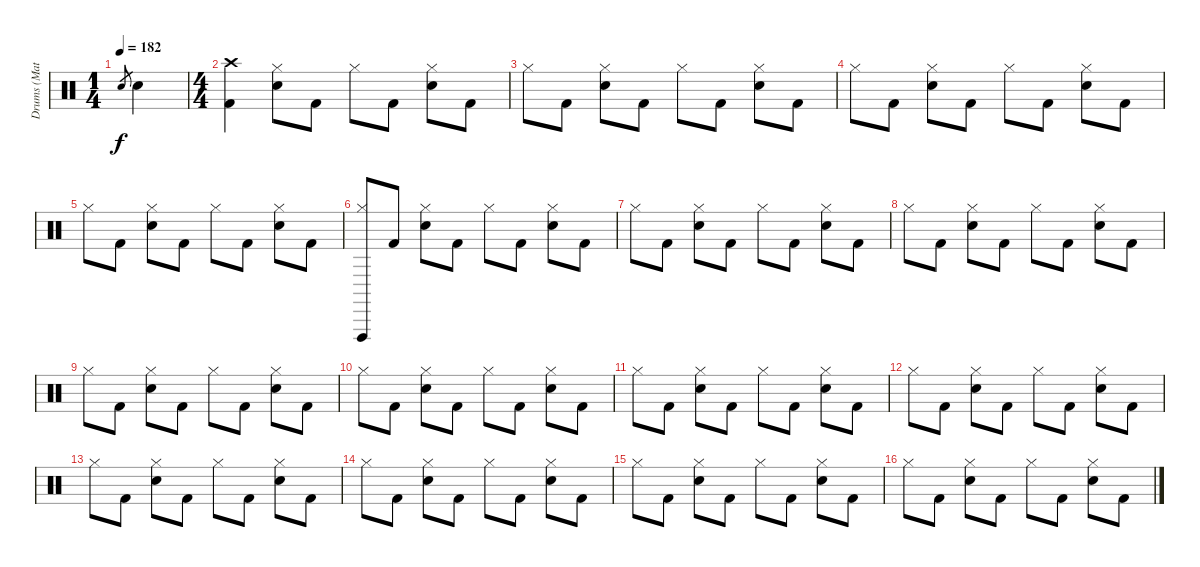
\track ("Drums (Matt)" "Drums (Mat") {instrument percussion}
\staff {score}
\articulation defaults
\ts (1 4)
\tempo 182
\clef neutral
\ks c "Snare (hit) 2".8{gr dy f} "Snare (hit) 2".4
|
\ts (4 4)
("Crash high (hit)" "Kick (hit) 2").4 ("Hi-Hat (closed)" "Snare (hit) 2").8 "Kick (hit) 2".8 "Hi-Hat (closed)".8 "Kick (hit) 2".8 ("Hi-Hat (closed)" "Snare (hit) 2").8 "Kick (hit) 2".8 |
"Hi-Hat (closed)".8 "Kick (hit) 2".8 ("Hi-Hat (closed)" "Snare (hit) 2").8 "Kick (hit) 2".8 "Hi-Hat (closed)".8 "Kick (hit) 2".8 ("Hi-Hat (closed)" "Snare (hit) 2").8 "Kick (hit) 2".8 |
"Hi-Hat (closed)".8 "Kick (hit) 2".8 ("Hi-Hat (closed)" "Snare (hit) 2").8 "Kick (hit) 2".8 "Hi-Hat (closed)".8 "Kick (hit) 2".8 ("Hi-Hat (closed)" "Snare (hit) 2").8 "Kick (hit) 2".8 |
"Hi-Hat (closed)".8 "Kick (hit) 2".8 ("Hi-Hat (closed)" "Snare (hit) 2").8 "Kick (hit) 2".8 "Hi-Hat (closed)".8 "Kick (hit) 2".8 ("Hi-Hat (closed)" "Snare (hit) 2").8 "Kick (hit) 2".8 |
("Vibraslap (hit)" "Hi-Hat (closed)").8 "Kick (hit) 2".8 ("Hi-Hat (closed)" "Snare (hit) 2").8 "Kick (hit) 2".8 "Hi-Hat (closed)".8 "Kick (hit) 2".8 ("Hi-Hat (closed)" "Snare (hit) 2").8 "Kick (hit) 2".8 |
"Hi-Hat (closed)".8 "Kick (hit) 2".8 ("Hi-Hat (closed)" "Snare (hit) 2").8 "Kick (hit) 2".8 "Hi-Hat (closed)".8 "Kick (hit) 2".8 ("Hi-Hat (closed)" "Snare (hit) 2").8 "Kick (hit) 2".8 |
"Hi-Hat (closed)".8 "Kick (hit) 2".8 ("Hi-Hat (closed)" "Snare (hit) 2").8 "Kick (hit) 2".8 "Hi-Hat (closed)".8 "Kick (hit) 2".8 ("Hi-Hat (closed)" "Snare (hit) 2").8 "Kick (hit) 2".8 |
"Hi-Hat (closed)".8 "Kick (hit) 2".8 ("Hi-Hat (closed)" "Snare (hit) 2").8 "Kick (hit) 2".8 "Hi-Hat (closed)".8 "Kick (hit) 2".8 ("Hi-Hat (closed)" "Snare (hit) 2").8 "Kick (hit) 2".8 |
"Hi-Hat (closed)".8 "Kick (hit) 2".8 ("Hi-Hat (closed)" "Snare (hit) 2").8 "Kick (hit) 2".8 "Hi-Hat (closed)".8 "Kick (hit) 2".8 ("Hi-Hat (closed)" "Snare (hit) 2").8 "Kick (hit) 2".8 |
"Hi-Hat (closed)".8 "Kick (hit) 2".8 ("Hi-Hat (closed)" "Snare (hit) 2").8 "Kick (hit) 2".8 "Hi-Hat (closed)".8 "Kick (hit) 2".8 ("Hi-Hat (closed)" "Snare (hit) 2").8 "Kick (hit) 2".8 |
"Hi-Hat (closed)".8 "Kick (hit) 2".8 ("Hi-Hat (closed)" "Snare (hit) 2").8 "Kick (hit) 2".8 "Hi-Hat (closed)".8 "Kick (hit) 2".8 ("Hi-Hat (closed)" "Snare (hit) 2").8 "Kick (hit) 2".8 |
"Hi-Hat (closed)".8 "Kick (hit) 2".8 ("Hi-Hat (closed)" "Snare (hit) 2").8 "Kick (hit) 2".8 "Hi-Hat (closed)".8 "Kick (hit) 2".8 ("Hi-Hat (closed)" "Snare (hit) 2").8 "Kick (hit) 2".8 |
"Hi-Hat (closed)".8 "Kick (hit) 2".8 ("Hi-Hat (closed)" "Snare (hit) 2").8 "Kick (hit) 2".8 "Hi-Hat (closed)".8 "Kick (hit) 2".8 ("Hi-Hat (closed)" "Snare (hit) 2").8 "Kick (hit) 2".8 |
"Hi-Hat (closed)".8 "Kick (hit) 2".8 ("Hi-Hat (closed)" "Snare (hit) 2").8 "Kick (hit) 2".8 "Hi-Hat (closed)".8 "Kick (hit) 2".8 ("Hi-Hat (closed)" "Snare (hit) 2").8 "Kick (hit) 2".8 |
"Hi-Hat (closed)".8 "Kick (hit) 2".8 ("Hi-Hat (closed)" "Snare (hit) 2").8 "Kick (hit) 2".8 "Hi-Hat (closed)".8 "Kick (hit) 2".8 ("Hi-Hat (closed)" "Snare (hit) 2").8 "Kick (hit) 2".8
